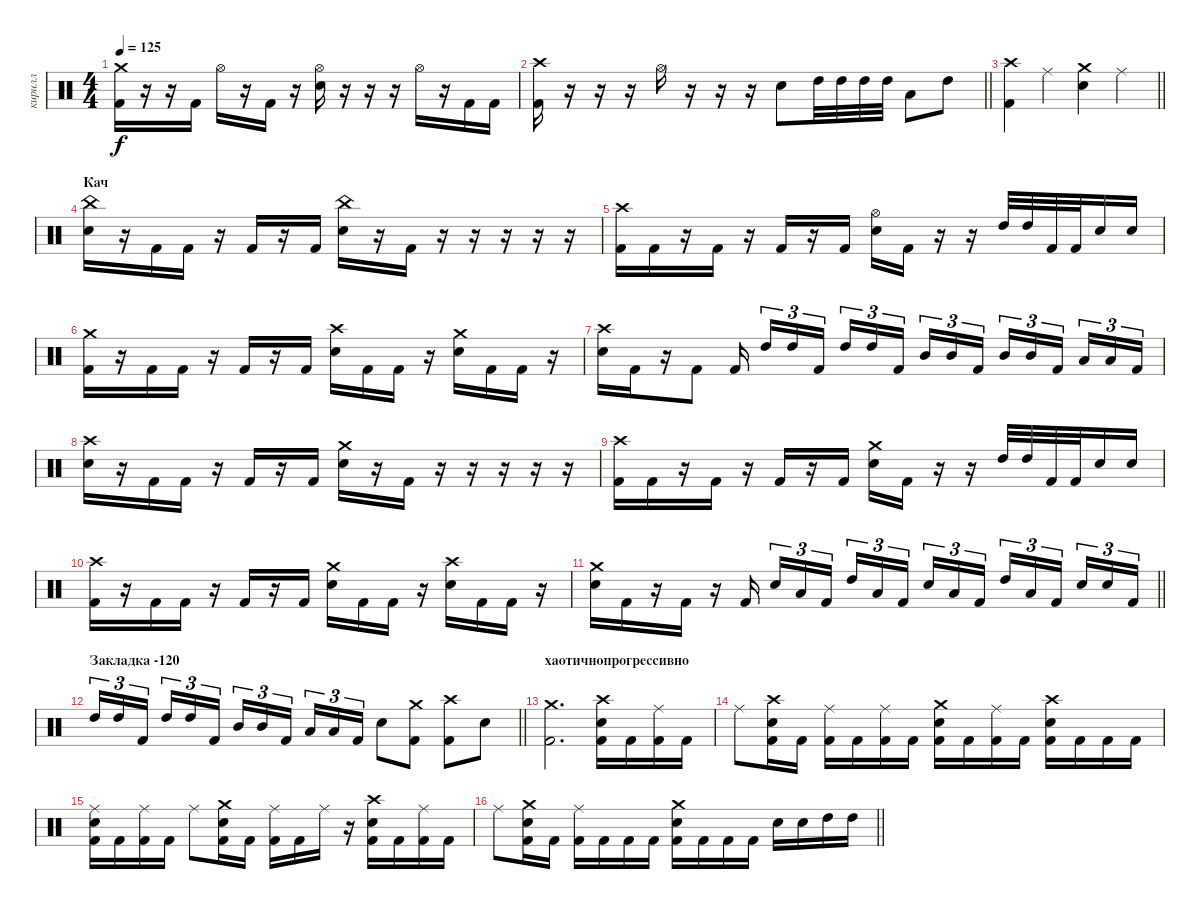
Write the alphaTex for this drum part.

\track ("кирилл" "кирилл") {instrument percussion}
\staff {score}
\articulation defaults
\ts (4 4)
\tempo 125
\clef neutral
\ks c
("Crash medium (hit)" "Kick (hit) 2").16{dy f} r.16 r.16 "Kick (hit) 2".16 "Hi-Hat (open)".16 r.16 "Kick (hit) 2".16 r.16 ("Hi-Hat (open)" "Electric Snare (hit)").16 r.16 r.16 r.16 "Hi-Hat (open)".16 r.16 "Kick (hit) 2".16 "Kick (hit) 2".16 |
\barLineRight lightlight
("Crash high (hit)" "Kick (hit) 2").16 r.16 r.16 r.16 "Hi-Hat (open)".16 r.16 r.16 r.16 "Electric Snare (hit)".8 "High Tom (hit)".32 "High Tom (hit)".32 "High Tom (hit)".32 "High Tom (hit)".32 "Low Tom (hit)".8 "High Tom (hit)".8 |
\barLineRight lightlight
("Crash high (hit)" "Kick (hit) 2").4 "Ride (middle)".4 ("Crash medium (hit)" "Electric Snare (hit)").4 "Ride (middle)".4 |
\section ("" "Кач")
("China (hit)" "Electric Snare (hit)").16 r.16 "Kick (hit) 2".16 "Kick (hit) 2".16 r.16 "Kick (hit) 2".16 r.16 "Kick (hit) 2".16 ("China (hit)" "Electric Snare (hit)").16 r.16 "Kick (hit) 2".16 r.16 r.16 r.16 r.16 r.16 |
("Crash high (hit)" "Kick (hit) 2").16 "Kick (hit) 2".16 r.16 "Kick (hit) 2".16 r.16 "Kick (hit) 2".16 r.16 "Kick (hit) 2".16 ("Hi-Hat (open)" "Electric Snare (hit)").16 "Kick (hit) 2".16 r.16 r.16 "High Tom (hit)".32 "High Tom (hit)".32 "Kick (hit) 2".32 "Kick (hit) 2".32 "Electric Snare (hit)".16 "Electric Snare (hit)".16 |
("Crash medium (hit)" "Kick (hit) 2").16 r.16 "Kick (hit) 2".16 "Kick (hit) 2".16 r.16 "Kick (hit) 2".16 r.16 "Kick (hit) 2".16 ("Crash high (hit)" "Electric Snare (hit)").16 "Kick (hit) 2".16 "Kick (hit) 2".16 r.16 ("Crash medium (hit)" "Electric Snare (hit)").16 "Kick (hit) 2".16 "Kick (hit) 2".16 r.16 |
("Crash high (hit)" "Electric Snare (hit)").16 "Kick (hit) 2".16 r.16 "Kick (hit) 2".8 "Kick (hit) 2".16{beam splitsecondary} "High Tom (hit)".16{tu (3 2)} "High Tom (hit)".16{tu (3 2)} "Kick (hit) 2".16{tu (3 2)} "High Tom (hit)".16{tu (3 2)} "High Tom (hit)".16{tu (3 2)} "Kick (hit) 2".16{tu (3 2) beam splitsecondary} "Mid Tom (hit)".16{tu (3 2)} "Mid Tom (hit)".16{tu (3 2)} "Kick (hit) 2".16{tu (3 2)} "Mid Tom (hit)".16{tu (3 2)} "Mid Tom (hit)".16{tu (3 2)} "Kick (hit) 2".16{tu (3 2) beam splitsecondary} "Low Tom (hit)".16{tu (3 2)} "Low Tom (hit)".16{tu (3 2)} "Kick (hit) 2".16{tu (3 2)} |
("Crash high (hit)" "Electric Snare (hit)").16 r.16 "Kick (hit) 2".16 "Kick (hit) 2".16 r.16 "Kick (hit) 2".16 r.16 "Kick (hit) 2".16 ("Crash medium (hit)" "Electric Snare (hit)").16 r.16 "Kick (hit) 2".16 r.16 r.16 r.16 r.16 r.16 |
("Crash high (hit)" "Kick (hit) 2").16 "Kick (hit) 2".16 r.16 "Kick (hit) 2".16 r.16 "Kick (hit) 2".16 r.16 "Kick (hit) 2".16 ("Crash medium (hit)" "Electric Snare (hit)").16 "Kick (hit) 2".16 r.16 r.16 "High Tom (hit)".32 "High Tom (hit)".32 "Kick (hit) 2".32 "Kick (hit) 2".32 "Electric Snare (hit)".16 "Electric Snare (hit)".16 |
("Crash high (hit)" "Kick (hit) 2").16 r.16 "Kick (hit) 2".16 "Kick (hit) 2".16 r.16 "Kick (hit) 2".16 r.16 "Kick (hit) 2".16 ("Crash medium (hit)" "Electric Snare (hit)").16 "Kick (hit) 2".16 "Kick (hit) 2".16 r.16 ("Crash high (hit)" "Electric Snare (hit)").16 "Kick (hit) 2".16 "Kick (hit) 2".16 r.16 |
\barLineRight lightlight
("Crash medium (hit)" "Electric Snare (hit)").16 "Kick (hit) 2".16 r.16 "Kick (hit) 2".16 r.16 "Kick (hit) 2".16{beam splitsecondary} "Electric Snare (hit)".16{tu (3 2)} "Low Tom (hit)".16{tu (3 2)} "Kick (hit) 2".16{tu (3 2)} "High Tom (hit)".16{tu (3 2)} "Low Tom (hit)".16{tu (3 2)} "Kick (hit) 2".16{tu (3 2) beam splitsecondary} "Electric Snare (hit)".16{tu (3 2)} "Low Tom (hit)".16{tu (3 2)} "Kick (hit) 2".16{tu (3 2)} "High Tom (hit)".16{tu (3 2)} "Low Tom (hit)".16{tu (3 2)} "Kick (hit) 2".16{tu (3 2) beam splitsecondary} "Electric Snare (hit)".16{tu (3 2)} "Electric Snare (hit)".16{tu (3 2)} "Kick (hit) 2".16{tu (3 2)} |
\section ("" "Закладка -120")
\barLineRight lightlight "High Tom (hit)".16{tu (3 2)} "High Tom (hit)".16{tu (3 2)} "Kick (hit) 2".16{tu (3 2) beam splitsecondary} "High Tom (hit)".16{tu (3 2)} "High Tom (hit)".16{tu (3 2)} "Kick (hit) 2".16{tu (3 2)} "Mid Tom (hit)".16{tu (3 2)} "Mid Tom (hit)".16{tu (3 2)} "Kick (hit) 2".16{tu (3 2) beam splitsecondary} "Low Tom (hit)".16{tu (3 2)} "Low Tom (hit)".16{tu (3 2)} "Kick (hit) 2".16{tu (3 2)} "Electric Snare (hit)".8
("Crash medium (hit)" "Kick (hit) 2").8 ("Crash high (hit)" "Kick (hit) 2").8 "Electric Snare (hit)".8 |
\section ("" "хаотичнопрогрессивно")
("Crash medium (hit)" "Kick (hit) 2").2{d} ("Crash high (hit)" "Electric Snare (hit)" "Kick (hit) 2").16 "Kick (hit) 2".16 ("Ride (middle)" "Kick (hit) 2").16 "Kick (hit) 2".16 |
"Ride (middle)".8 ("Crash high (hit)" "Electric Snare (hit)" "Kick (hit) 2").16 "Kick (hit) 2".16 ("Ride (middle)" "Kick (hit) 2").16 "Kick (hit) 2".16 ("Ride (middle)" "Kick (hit) 2").16 "Kick (hit) 2".16 ("Crash medium (hit)" "Electric Snare (hit)" "Kick (hit) 2").16 "Kick (hit) 2".16 ("Ride (middle)" "Kick (hit) 2").16 "Kick (hit) 2".16 ("Crash high (hit)" "Electric Snare (hit)" "Kick (hit) 2").16 "Kick (hit) 2".16 "Kick (hit) 2".16 "Kick (hit) 2".16 |
("Ride (middle)" "Electric Snare (hit)" "Kick (hit) 2").16 "Kick (hit) 2".16 ("Ride (middle)" "Kick (hit) 2").16 "Kick (hit) 2".16 "Ride (middle)".8 ("Crash medium (hit)" "Electric Snare (hit)" "Kick (hit) 2").16 "Kick (hit) 2".16 ("Ride (middle)" "Kick (hit) 2").16 "Kick (hit) 2".16 "Ride (middle)".16 r.16 ("Crash high (hit)" "Electric Snare (hit)" "Kick (hit) 2").16 "Kick (hit) 2".16 ("Ride (middle)" "Kick (hit) 2").16 "Kick (hit) 2".16 |
\barLineRight lightlight "Ride (middle)".8
("Crash medium (hit)" "Electric Snare (hit)" "Kick (hit) 2").16 "Kick (hit) 2".16 ("Ride (middle)" "Kick (hit) 2").16 "Kick (hit) 2".16 "Kick (hit) 2".16 "Kick (hit) 2".16 ("Crash medium (hit)" "Electric Snare (hit)" "Kick (hit) 2").16 "Kick (hit) 2".16 "Kick (hit) 2".16 "Kick (hit) 2".16 "Electric Snare (hit)".16 "Electric Snare (hit)".16 "High Tom (hit)".16 "High Tom (hit)".16
